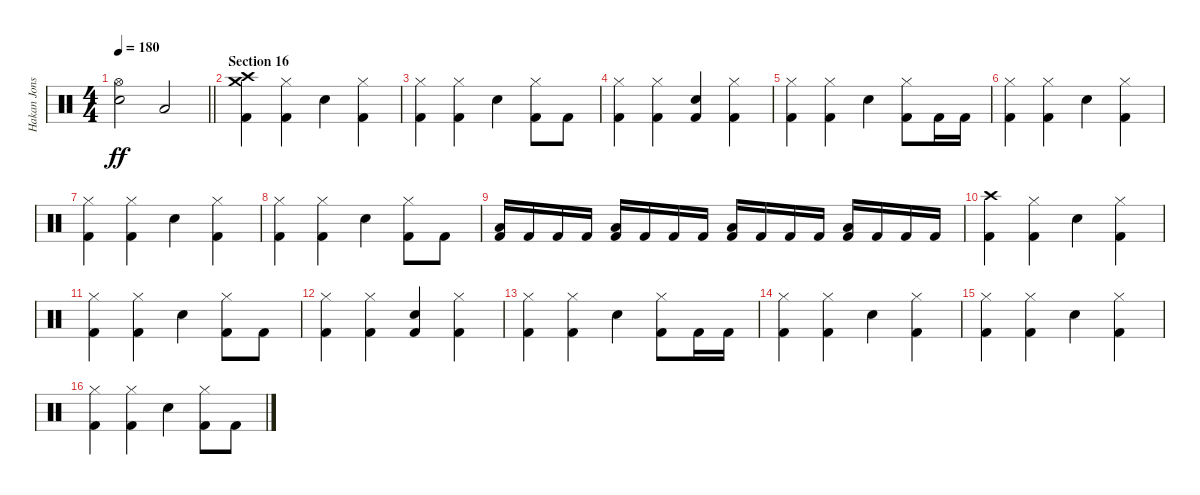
\track ("Hakan Jonsson" "Hakan Jons") {instrument percussion}
\staff {score}
\articulation defaults
\ts (4 4)
\tempo 180
\clef neutral
\barLineRight lightlight
\ks c
("Hi-Hat (open)" "Electric Snare (hit)").2{dy ff} "Low Tom (hit)".2 |
\section ("" "Section 16")
("Crash high (hit)" "Crash medium (hit)" "Kick (hit) 2").4 ("Hi-Hat (closed)" "Kick (hit) 2").4 "Electric Snare (hit)".4 ("Hi-Hat (closed)" "Kick (hit) 2").4 |
("Hi-Hat (closed)" "Kick (hit) 2").4 ("Hi-Hat (closed)" "Kick (hit) 2").4 "Electric Snare (hit)".4 ("Hi-Hat (closed)" "Kick (hit) 2").8 "Kick (hit) 2".8 |
("Hi-Hat (closed)" "Kick (hit) 2").4 ("Hi-Hat (closed)" "Kick (hit) 2").4 ("Electric Snare (hit)" "Kick (hit) 2").4 ("Hi-Hat (closed)" "Kick (hit) 2").4 |
("Hi-Hat (closed)" "Kick (hit) 2").4 ("Hi-Hat (closed)" "Kick (hit) 2").4 "Electric Snare (hit)".4 ("Hi-Hat (closed)" "Kick (hit) 2").8 "Kick (hit) 2".16 "Kick (hit) 2".16 |
("Hi-Hat (closed)" "Kick (hit) 2").4 ("Hi-Hat (closed)" "Kick (hit) 2").4 "Electric Snare (hit)".4 ("Hi-Hat (closed)" "Kick (hit) 2").4 |
("Hi-Hat (closed)" "Kick (hit) 2").4 ("Hi-Hat (closed)" "Kick (hit) 2").4 "Electric Snare (hit)".4 ("Hi-Hat (closed)" "Kick (hit) 2").4 |
("Hi-Hat (closed)" "Kick (hit) 2").4 ("Hi-Hat (closed)" "Kick (hit) 2").4 "Electric Snare (hit)".4 ("Hi-Hat (closed)" "Kick (hit) 2").8 "Kick (hit) 2".8 |
("Low Tom (hit)" "Kick (hit) 2").16 "Kick (hit) 2".16 "Kick (hit) 2".16 "Kick (hit) 2".16 ("Low Tom (hit)" "Kick (hit) 2").16 "Kick (hit) 2".16 "Kick (hit) 2".16 "Kick (hit) 2".16 ("Low Tom (hit)" "Kick (hit) 2").16 "Kick (hit) 2".16 "Kick (hit) 2".16 "Kick (hit) 2".16 ("Low Tom (hit)" "Kick (hit) 2").16 "Kick (hit) 2".16 "Kick (hit) 2".16 "Kick (hit) 2".16 |
("Crash high (hit)" "Kick (hit) 2").4 ("Hi-Hat (closed)" "Kick (hit) 2").4 "Electric Snare (hit)".4 ("Hi-Hat (closed)" "Kick (hit) 2").4 |
("Hi-Hat (closed)" "Kick (hit) 2").4 ("Hi-Hat (closed)" "Kick (hit) 2").4 "Electric Snare (hit)".4 ("Hi-Hat (closed)" "Kick (hit) 2").8 "Kick (hit) 2".8 |
("Hi-Hat (closed)" "Kick (hit) 2").4 ("Hi-Hat (closed)" "Kick (hit) 2").4 ("Electric Snare (hit)" "Kick (hit) 2").4 ("Hi-Hat (closed)" "Kick (hit) 2").4 |
("Hi-Hat (closed)" "Kick (hit) 2").4 ("Hi-Hat (closed)" "Kick (hit) 2").4 "Electric Snare (hit)".4 ("Hi-Hat (closed)" "Kick (hit) 2").8 "Kick (hit) 2".16 "Kick (hit) 2".16 |
("Hi-Hat (closed)" "Kick (hit) 2").4 ("Hi-Hat (closed)" "Kick (hit) 2").4 "Electric Snare (hit)".4 ("Hi-Hat (closed)" "Kick (hit) 2").4 |
("Hi-Hat (closed)" "Kick (hit) 2").4 ("Hi-Hat (closed)" "Kick (hit) 2").4 "Electric Snare (hit)".4 ("Hi-Hat (closed)" "Kick (hit) 2").4 |
("Hi-Hat (closed)" "Kick (hit) 2").4 ("Hi-Hat (closed)" "Kick (hit) 2").4 "Electric Snare (hit)".4 ("Hi-Hat (closed)" "Kick (hit) 2").8 "Kick (hit) 2".8
